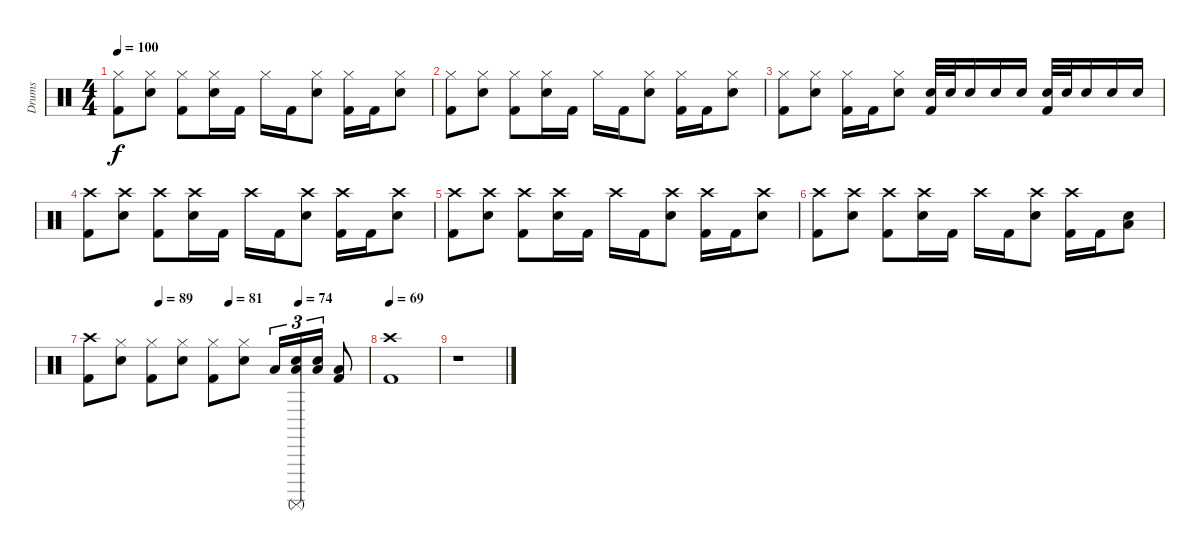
\track ("Drums" "Drums") {instrument percussion}
\staff {score}
\articulation defaults
\ts (4 4)
\tempo 100
\clef neutral
\ks c
("Hi-Hat (closed)" "Kick (hit) 2").8{dy f} ("Hi-Hat (closed)" "Electric Snare (hit)").8 ("Hi-Hat (closed)" "Kick (hit) 2").8 ("Hi-Hat (closed)" "Electric Snare (hit)").16 "Kick (hit) 2".16 "Hi-Hat (closed)".16 "Kick (hit) 2".16 ("Hi-Hat (closed)" "Electric Snare (hit)").8 ("Hi-Hat (closed)" "Kick (hit) 2").16 "Kick (hit) 2".16 ("Hi-Hat (closed)" "Electric Snare (hit)").8 |
("Hi-Hat (closed)" "Kick (hit) 2").8 ("Hi-Hat (closed)" "Electric Snare (hit)").8 ("Hi-Hat (closed)" "Kick (hit) 2").8 ("Hi-Hat (closed)" "Electric Snare (hit)").16 "Kick (hit) 2".16 "Hi-Hat (closed)".16 "Kick (hit) 2".16 ("Hi-Hat (closed)" "Electric Snare (hit)").8 ("Hi-Hat (closed)" "Kick (hit) 2").16 "Kick (hit) 2".16 ("Hi-Hat (closed)" "Electric Snare (hit)").8 |
("Hi-Hat (closed)" "Kick (hit) 2").8 ("Hi-Hat (closed)" "Electric Snare (hit)").8 ("Hi-Hat (closed)" "Kick (hit) 2").16 "Kick (hit) 2".16 ("Hi-Hat (closed)" "Electric Snare (hit)").8 ("Electric Snare (hit)" "Kick (hit) 2").32 "Electric Snare (hit)".32 "Electric Snare (hit)".16 "Electric Snare (hit)".16 "Electric Snare (hit)".16 ("Electric Snare (hit)" "Kick (hit) 2").32 "Electric Snare (hit)".32 "Electric Snare (hit)".16 "Electric Snare (hit)".16 "Electric Snare (hit)".16 |
("Crash high (hit)" "Kick (hit) 2").8 ("Crash high (hit)" "Electric Snare (hit)").8 ("Crash high (hit)" "Kick (hit) 2").8 ("Crash high (hit)" "Electric Snare (hit)").16 "Kick (hit) 2".16 "Crash high (hit)".16 "Kick (hit) 2".16 ("Crash high (hit)" "Electric Snare (hit)").8 ("Crash high (hit)" "Kick (hit) 2").16 "Kick (hit) 2".16 ("Crash high (hit)" "Electric Snare (hit)").8 |
("Crash high (hit)" "Kick (hit) 2").8 ("Crash high (hit)" "Electric Snare (hit)").8 ("Crash high (hit)" "Kick (hit) 2").8 ("Crash high (hit)" "Electric Snare (hit)").16 "Kick (hit) 2".16 "Crash high (hit)".16 "Kick (hit) 2".16 ("Crash high (hit)" "Electric Snare (hit)").8 ("Crash high (hit)" "Kick (hit) 2").16 "Kick (hit) 2".16 ("Crash high (hit)" "Electric Snare (hit)").8 |
("Crash high (hit)" "Kick (hit) 2").8 ("Crash high (hit)" "Electric Snare (hit)").8 ("Crash high (hit)" "Kick (hit) 2").8 ("Crash high (hit)" "Electric Snare (hit)").16 "Kick (hit) 2".16 "Crash high (hit)".16 "Kick (hit) 2".16 ("Crash high (hit)" "Electric Snare (hit)").8 ("Crash high (hit)" "Kick (hit) 2").16 "Kick (hit) 2".16 ("Electric Snare (hit)" "Low Floor Tom (hit)").8 |
\tempo (89 0.25)
\tempo (81 0.5)
\tempo (74 0.75)
("Crash high (hit)" "Kick (hit) 2").8 ("Hi-Hat (closed)" "Electric Snare (hit)").8 ("Hi-Hat (closed)" "Kick (hit) 2").8 ("Hi-Hat (closed)" "Electric Snare (hit)").8 ("Hi-Hat (closed)" "Kick (hit) 2").8 ("Hi-Hat (closed)" "Electric Snare (hit)").8 "Low Floor Tom (hit)".16{tu (3 2)} ("Electric Snare (hit)" "Low Floor Tom (hit)" "Surdo (mute)").16{tu (3 2)} ("Electric Snare (hit)" "Low Floor Tom (hit)").16{tu (3 2)} ("Low Floor Tom (hit)" "Kick (hit) 2").8 |
\tempo 69
("Crash high (hit)" "Kick (hit) 2").1 |
r.1
